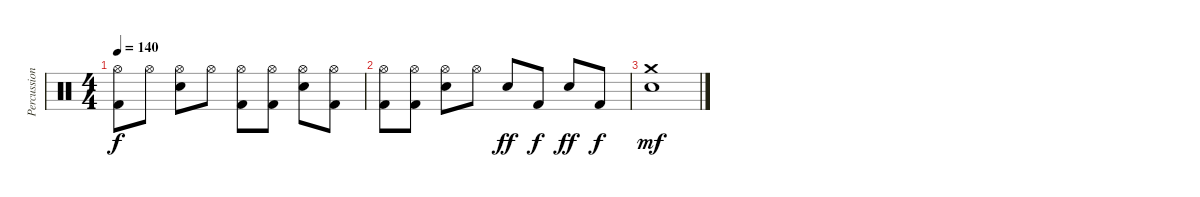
\track ("Percussion" "Percussion") {instrument percussion}
\staff {score}
\articulation defaults
\ts (4 4)
\tempo 140
\clef neutral
\ks c
("Hi-Hat (open)" "Kick (hit) 2").8{dy f} "Hi-Hat (open)".8 ("Hi-Hat (open)" "Snare (hit) 2").8 "Hi-Hat (open)".8 ("Hi-Hat (open)" "Kick (hit) 2").8 ("Hi-Hat (open)" "Kick (hit) 2").8 ("Hi-Hat (open)" "Snare (hit) 2").8 ("Hi-Hat (open)" "Kick (hit) 2").8 |
("Hi-Hat (open)" "Kick (hit) 2").8 ("Hi-Hat (open)" "Kick (hit) 2").8 ("Hi-Hat (open)" "Snare (hit) 2").8 "Hi-Hat (open)".8 "Snare (hit) 2".8{dy ff} "Kick (hit) 2".8{dy f} "Snare (hit) 2".8{dy ff} "Kick (hit) 2".8{dy f} |
("Crash medium (hit)" "Snare (hit) 2").1{dy mf}
